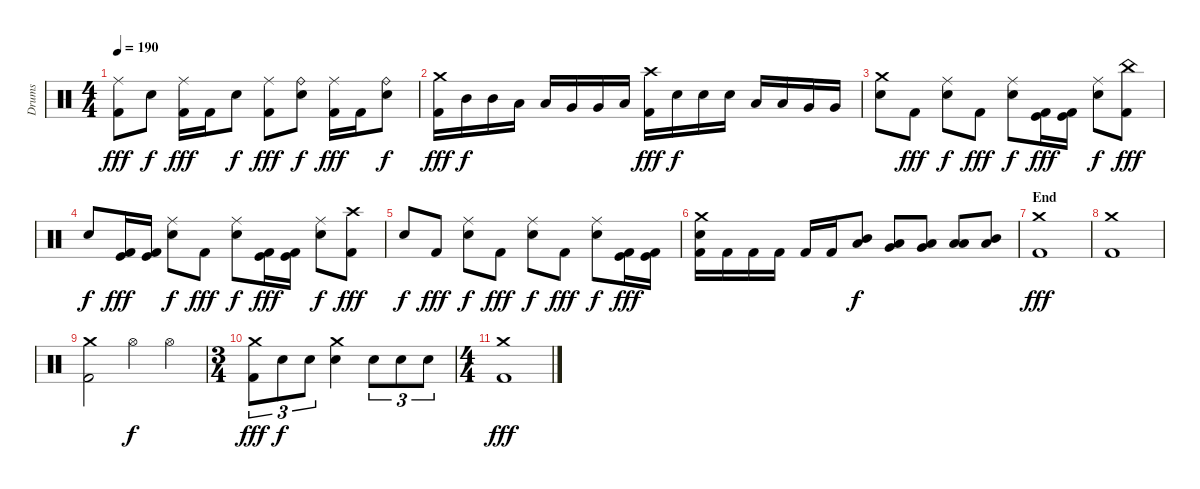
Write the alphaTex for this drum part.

\track ("Drums" "Drums") {instrument percussion}
\staff {score}
\articulation defaults
\ts (4 4)
\tempo 190
\clef neutral
\ks c
("Ride (middle)" "Kick (hit) 2").8{dy fff} "Snare (hit) 2".8{dy f} ("Ride (middle)" "Kick (hit) 2").16{dy fff} "Kick (hit) 2".16 "Snare (hit) 2".8{dy f} ("Ride (middle)" "Kick (hit) 2").8{dy fff} ("Ride (bell)" "Snare (hit) 2").8{dy f} ("Ride (middle)" "Kick (hit) 2").16{dy fff} "Kick (hit) 2".16 ("Ride (bell)" "Snare (hit) 2").8{dy f} |
("Crash medium (hit)" "Kick (hit) 2").16{dy fff} "Mid Tom (hit)".16{dy f} "Mid Tom (hit)".16 "Low Tom (hit)".16 "Low Tom (hit)".16 "Very Low Tom (hit)".16 "Very Low Tom (hit)".16 "Low Floor Tom (hit)".16 ("Crash high (hit)" "Kick (hit) 2").16{dy fff} "Snare (hit) 2".16{dy f} "Snare (hit) 2".16 "Snare (hit) 2".16 "Low Tom (hit)".16 "Low Tom (hit)".16 "Very Low Tom (hit)".16 "Very Low Tom (hit)".16 |
("Crash medium (hit)" "Snare (hit) 2").8 "Kick (hit) 2".8{dy fff} ("Ride (middle)" "Snare (hit) 2").8{dy f} "Kick (hit) 2".8{dy fff} ("Ride (middle)" "Snare (hit) 2").8{dy f} ("Kick (hit)" "Kick (hit) 2").16{dy fff} ("Kick (hit)" "Kick (hit) 2").16 ("Ride (middle)" "Snare (hit) 2").8{dy f} ("China (hit)" "Kick (hit) 2").8{dy fff} |
"Snare (hit) 2".8{dy f} ("Kick (hit)" "Kick (hit) 2").16{dy fff} ("Kick (hit)" "Kick (hit) 2").16 ("Ride (middle)" "Snare (hit) 2").8{dy f} "Kick (hit) 2".8{dy fff} ("Ride (middle)" "Snare (hit) 2").8{dy f} ("Kick (hit)" "Kick (hit) 2").16{dy fff} ("Kick (hit)" "Kick (hit) 2").16 ("Ride (middle)" "Snare (hit) 2").8{dy f} ("Crash high (hit)" "Kick (hit) 2").8{dy fff} |
"Snare (hit) 2".8{dy f} "Kick (hit) 2".8{dy fff} ("Ride (middle)" "Snare (hit) 2").8{dy f} "Kick (hit) 2".8{dy fff} ("Ride (middle)" "Snare (hit) 2").8{dy f} "Kick (hit) 2".8{dy fff} ("Ride (middle)" "Snare (hit) 2").8{dy f} ("Kick (hit)" "Kick (hit) 2").16{dy fff} ("Kick (hit)" "Kick (hit) 2").16 |
("Crash medium (hit)" "Snare (hit) 2" "Kick (hit) 2").16 "Kick (hit) 2".16 "Kick (hit) 2".16 "Kick (hit) 2".16 "Kick (hit) 2".16 "Kick (hit) 2".16 ("Mid Tom (hit)" "Low Tom (hit)").8{dy f} ("Low Tom (hit)" "Very Low Tom (hit)").8 ("Low Tom (hit)" "Very Low Tom (hit)").8 ("Low Tom (hit)" "Low Floor Tom (hit)").8 ("Mid Tom (hit)" "Low Tom (hit)").8 |
\section ("" "End")
("Crash medium (hit)" "Kick (hit) 2").1{dy fff} |
("Crash medium (hit)" "Kick (hit) 2").1 |
("Crash medium (hit)" "Kick (hit) 2").2 "Hi-Hat (open)".4{dy f} "Hi-Hat (open)".4 |
\ts (3 4)
("Crash medium (hit)" "Kick (hit) 2").8{tu (3 2) dy fff} "Snare (hit) 2".8{tu (3 2) dy f} "Snare (hit) 2".8{tu (3 2)} ("Crash medium (hit)" "Snare (hit) 2").4 "Snare (hit) 2".8{tu (3 2)} "Snare (hit) 2".8{tu (3 2)} "Snare (hit) 2".8{tu (3 2)} |
\ts (4 4)
("Crash medium (hit)" "Kick (hit) 2").1{dy fff}
